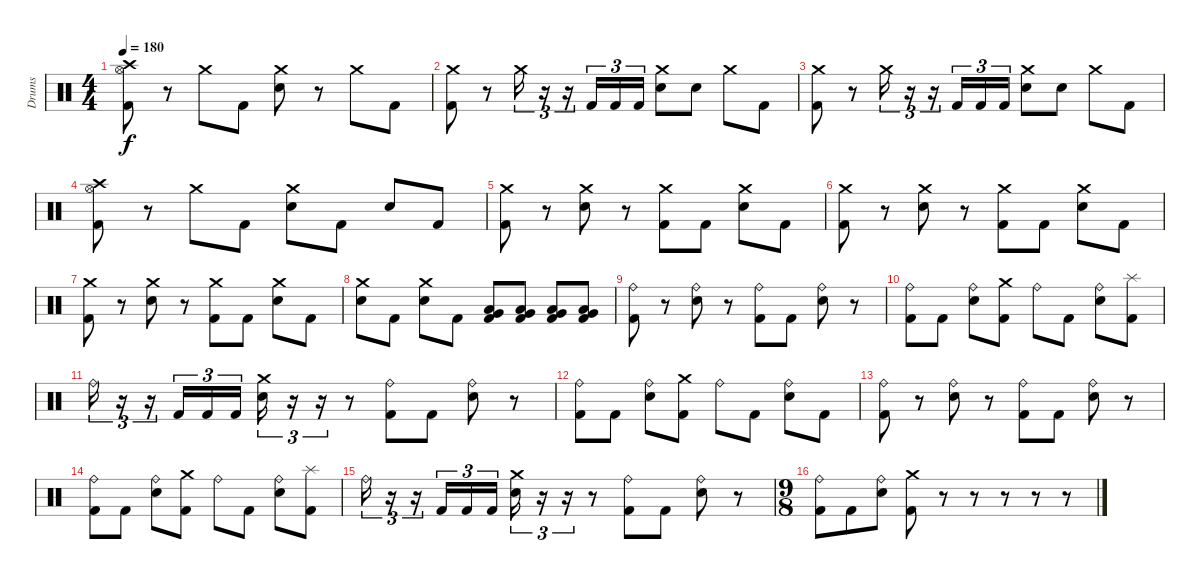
\track ("Drums" "Drums") {instrument percussion}
\staff {score}
\articulation defaults
\ts (4 4)
\tempo 180
\clef neutral
\ks c
("Crash high (hit)" "Hi-Hat (open)" "Kick (hit) 2").8{dy f} r.8 "Crash medium (hit)".8 "Kick (hit) 2".8 ("Crash medium (hit)" "Electric Snare (hit)").8 r.8 "Crash medium (hit)".8 "Kick (hit) 2".8 |
("Crash medium (hit)" "Kick (hit) 2").8 r.8 "Crash medium (hit)".16{tu (3 2)} r.16{tu (3 2)} r.16{tu (3 2)} "Kick (hit) 2".16{tu (3 2)} "Kick (hit) 2".16{tu (3 2)} "Kick (hit) 2".16{tu (3 2)} ("Crash medium (hit)" "Electric Snare (hit)").8 "Electric Snare (hit)".8 "Crash medium (hit)".8 "Kick (hit) 2".8 |
("Crash medium (hit)" "Kick (hit) 2").8 r.8 "Crash medium (hit)".16{tu (3 2)} r.16{tu (3 2)} r.16{tu (3 2)} "Kick (hit) 2".16{tu (3 2)} "Kick (hit) 2".16{tu (3 2)} "Kick (hit) 2".16{tu (3 2)} ("Crash medium (hit)" "Electric Snare (hit)").8 "Electric Snare (hit)".8 "Crash medium (hit)".8 "Kick (hit) 2".8 |
("Crash high (hit)" "Hi-Hat (open)" "Kick (hit) 2").8 r.8 "Crash medium (hit)".8 "Kick (hit) 2".8 ("Crash medium (hit)" "Electric Snare (hit)").8 "Kick (hit) 2".8 "Electric Snare (hit)".8 "Kick (hit) 2".8 |
("Crash medium (hit)" "Kick (hit) 2").8 r.8 ("Crash medium (hit)" "Electric Snare (hit)").8 r.8 ("Crash medium (hit)" "Kick (hit) 2").8 "Kick (hit) 2".8 ("Crash medium (hit)" "Electric Snare (hit)").8 "Kick (hit) 2".8 |
("Crash medium (hit)" "Kick (hit) 2").8 r.8 ("Crash medium (hit)" "Electric Snare (hit)").8 r.8 ("Crash medium (hit)" "Kick (hit) 2").8 "Kick (hit) 2".8 ("Crash medium (hit)" "Electric Snare (hit)").8 "Kick (hit) 2".8 |
("Crash medium (hit)" "Kick (hit) 2").8 r.8 ("Crash medium (hit)" "Electric Snare (hit)").8 r.8 ("Crash medium (hit)" "Kick (hit) 2").8 "Kick (hit) 2".8 ("Crash medium (hit)" "Electric Snare (hit)").8 "Kick (hit) 2".8 |
("Crash medium (hit)" "Electric Snare (hit)").8 "Kick (hit) 2".8 ("Crash medium (hit)" "Electric Snare (hit)").8 "Kick (hit) 2".8 ("Low Floor Tom (hit)" "Very Low Tom (hit)" "Kick (hit) 2").8 ("Low Floor Tom (hit)" "Very Low Tom (hit)" "Kick (hit) 2").8 ("Low Floor Tom (hit)" "Very Low Tom (hit)" "Kick (hit) 2").8 ("Low Floor Tom (hit)" "Very Low Tom (hit)" "Kick (hit) 2").8 |
("Ride (bell)" "Kick (hit) 2").8 r.8 ("Ride (bell)" "Electric Snare (hit)").8 r.8 ("Ride (bell)" "Kick (hit) 2").8 "Kick (hit) 2".8 ("Ride (bell)" "Electric Snare (hit)").8 r.8 |
("Ride (bell)" "Kick (hit) 2").8 "Kick (hit) 2".8 ("Ride (bell)" "Electric Snare (hit)").8 ("Crash medium (hit)" "Kick (hit) 2").8 "Ride (bell)".8 "Kick (hit) 2".8 ("Ride (bell)" "Electric Snare (hit)").8 ("Splash (hit)" "Kick (hit) 2").8 |
"Ride (bell)".16{tu (3 2)} r.16{tu (3 2)} r.16{tu (3 2)} "Kick (hit) 2".16{tu (3 2)} "Kick (hit) 2".16{tu (3 2)} "Kick (hit) 2".16{tu (3 2)} ("Crash medium (hit)" "Electric Snare (hit)").16{tu (3 2)} r.16{tu (3 2)} r.16{tu (3 2)} r.8 ("Ride (bell)" "Kick (hit) 2").8 "Kick (hit) 2".8 ("Ride (bell)" "Electric Snare (hit)").8 r.8 |
("Ride (bell)" "Kick (hit) 2").8 "Kick (hit) 2".8 ("Ride (bell)" "Electric Snare (hit)").8 ("Crash medium (hit)" "Kick (hit) 2").8 "Ride (bell)".8 "Kick (hit) 2".8 ("Ride (bell)" "Electric Snare (hit)").8 "Kick (hit) 2".8 |
("Ride (bell)" "Kick (hit) 2").8 r.8 ("Ride (bell)" "Electric Snare (hit)").8 r.8 ("Ride (bell)" "Kick (hit) 2").8 "Kick (hit) 2".8 ("Ride (bell)" "Electric Snare (hit)").8 r.8 |
("Ride (bell)" "Kick (hit) 2").8 "Kick (hit) 2".8 ("Ride (bell)" "Electric Snare (hit)").8 ("Crash medium (hit)" "Kick (hit) 2").8 "Ride (bell)".8 "Kick (hit) 2".8 ("Ride (bell)" "Electric Snare (hit)").8 ("Splash (hit)" "Kick (hit) 2").8 |
"Ride (bell)".16{tu (3 2)} r.16{tu (3 2)} r.16{tu (3 2)} "Kick (hit) 2".16{tu (3 2)} "Kick (hit) 2".16{tu (3 2)} "Kick (hit) 2".16{tu (3 2)} ("Crash medium (hit)" "Electric Snare (hit)").16{tu (3 2)} r.16{tu (3 2)} r.16{tu (3 2)} r.8 ("Ride (bell)" "Kick (hit) 2").8 "Kick (hit) 2".8 ("Ride (bell)" "Electric Snare (hit)").8 r.8 |
\ts (9 8)
("Ride (bell)" "Kick (hit) 2").8 "Kick (hit) 2".8 ("Ride (bell)" "Electric Snare (hit)").8 ("Crash medium (hit)" "Kick (hit) 2").8 r.8 r.8 r.8 r.8 r.8
